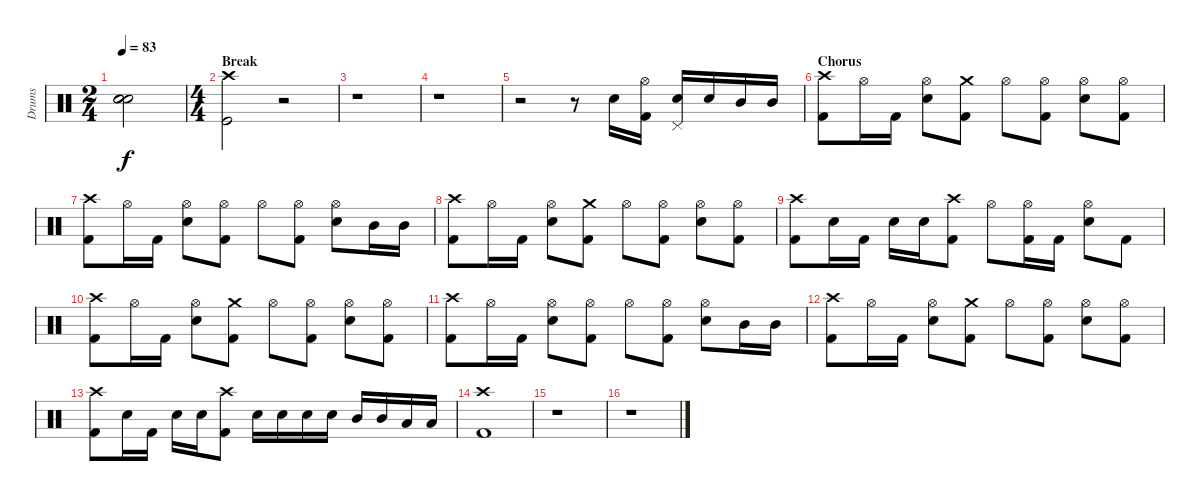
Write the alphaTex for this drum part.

\track ("Drums" "Drums") {instrument percussion}
\staff {score}
\articulation defaults
\ts (2 4)
\tempo 83
\clef neutral
\ks c
("Snare (hit)"{t} "Snare (hit)"{t} "Snare (hit)"{t}).2{dy f} |
\ts (4 4)
\section ("" "Break")
("Crash high (hit)" "Kick (hit)").2 r.2 |
r.1 |
r.1 |
r.2 r.8 "Electric Snare (hit)".16 ("Hi-Hat (open)" "Kick (hit) 2").16 ("Electric Snare (hit)" "Pedal Hi-Hat (hit)").16 "Electric Snare (hit)".16 "Mid Tom (hit)".16 "Mid Tom (hit)".16 |
\section ("" "Chorus")
("Crash high (hit)" "Kick (hit) 2").8 "Hi-Hat (open)".16 "Kick (hit) 2".16 ("Hi-Hat (open)" "Electric Snare (hit)").8 ("Crash medium (hit)" "Kick (hit) 2").8 "Hi-Hat (open)".8 ("Hi-Hat (open)" "Kick (hit) 2").8 ("Hi-Hat (open)" "Electric Snare (hit)").8 ("Hi-Hat (open)" "Kick (hit) 2").8 |
("Crash high (hit)" "Kick (hit) 2").8 "Hi-Hat (open)".16 "Kick (hit) 2".16 ("Hi-Hat (open)" "Electric Snare (hit)").8 ("Hi-Hat (open)" "Kick (hit) 2").8 "Hi-Hat (open)".8 ("Hi-Hat (open)" "Kick (hit) 2").8 ("Hi-Hat (open)" "Electric Snare (hit)").8 "Mid Tom (hit)".16 "Mid Tom (hit)".16 |
("Crash high (hit)" "Kick (hit) 2").8 "Hi-Hat (open)".16 "Kick (hit) 2".16 ("Hi-Hat (open)" "Electric Snare (hit)").8 ("Crash medium (hit)" "Kick (hit) 2").8 "Hi-Hat (open)".8 ("Hi-Hat (open)" "Kick (hit) 2").8 ("Hi-Hat (open)" "Electric Snare (hit)").8 ("Hi-Hat (open)" "Kick (hit) 2").8 |
("Crash high (hit)" "Kick (hit) 2").8 "Electric Snare (hit)".16 "Kick (hit) 2".16 "Electric Snare (hit)".16 "Electric Snare (hit)".16 ("Crash high (hit)" "Kick (hit) 2").8 "Hi-Hat (open)".8 ("Hi-Hat (open)" "Kick (hit) 2").16 "Kick (hit) 2".16 ("Hi-Hat (open)" "Electric Snare (hit)").8 "Kick (hit) 2".8 |
("Crash high (hit)" "Kick (hit) 2").8 "Hi-Hat (open)".16 "Kick (hit) 2".16 ("Hi-Hat (open)" "Electric Snare (hit)").8 ("Crash medium (hit)" "Kick (hit) 2").8 "Hi-Hat (open)".8 ("Hi-Hat (open)" "Kick (hit) 2").8 ("Hi-Hat (open)" "Electric Snare (hit)").8 ("Hi-Hat (open)" "Kick (hit) 2").8 |
("Crash high (hit)" "Kick (hit) 2").8 "Hi-Hat (open)".16 "Kick (hit) 2".16 ("Hi-Hat (open)" "Electric Snare (hit)").8 ("Hi-Hat (open)" "Kick (hit) 2").8 "Hi-Hat (open)".8 ("Hi-Hat (open)" "Kick (hit) 2").8 ("Hi-Hat (open)" "Electric Snare (hit)").8 "Mid Tom (hit)".16 "Mid Tom (hit)".16 |
("Crash high (hit)" "Kick (hit) 2").8 "Hi-Hat (open)".16 "Kick (hit) 2".16 ("Hi-Hat (open)" "Electric Snare (hit)").8 ("Crash medium (hit)" "Kick (hit) 2").8 "Hi-Hat (open)".8 ("Hi-Hat (open)" "Kick (hit) 2").8 ("Hi-Hat (open)" "Electric Snare (hit)").8 ("Hi-Hat (open)" "Kick (hit) 2").8 |
("Crash high (hit)" "Kick (hit) 2").8 "Electric Snare (hit)".16 "Kick (hit) 2".16 "Electric Snare (hit)".16 "Electric Snare (hit)".16 ("Crash high (hit)" "Kick (hit) 2").8 "Electric Snare (hit)".16 "Electric Snare (hit)".16 "Electric Snare (hit)".16 "Electric Snare (hit)".16 "Mid Tom (hit)".16 "Mid Tom (hit)".16 "Low Tom (hit)".16 "Low Tom (hit)".16 |
("Crash high (hit)" "Kick (hit) 2").1 |
r.1 |
r.1
